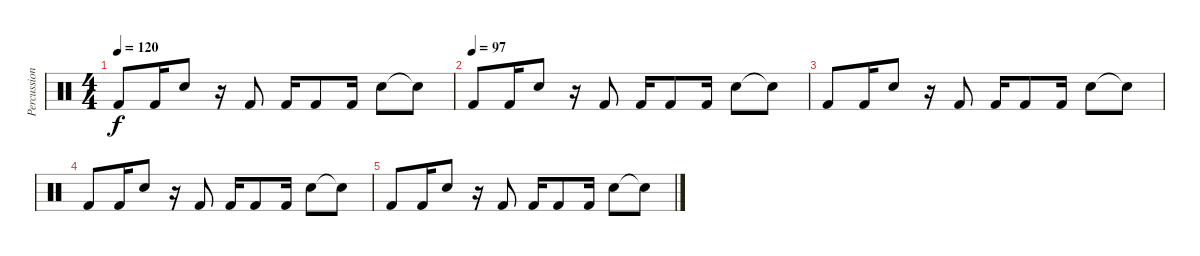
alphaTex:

\track ("Percussion" "Percussion") {instrument percussion}
\staff {score}
\articulation defaults
\ts (4 4)
\tempo 120
\clef neutral
\ks c "Kick (hit) 2".8{dy f} "Kick (hit) 2".16 "Electric Snare (hit)".8
r.16 "Kick (hit) 2".8 "Kick (hit) 2".16 "Kick (hit) 2".8 "Kick (hit) 2".16 "Electric Snare (hit)".8 "Snare (hit)"{t}.8 |
\tempo (97)
"Kick (hit) 2".8{volume 5} "Kick (hit) 2".16 "Electric Snare (hit)".8 r.16 "Kick (hit) 2".8 "Kick (hit) 2".16 "Kick (hit) 2".8 "Kick (hit) 2".16 "Electric Snare (hit)".8 "Snare (hit)"{t}.8 |
"Kick (hit) 2".8 "Kick (hit) 2".16 "Electric Snare (hit)".8 r.16 "Kick (hit) 2".8 "Kick (hit) 2".16 "Kick (hit) 2".8 "Kick (hit) 2".16 "Electric Snare (hit)".8 "Snare (hit)"{t}.8 |
"Kick (hit) 2".8 "Kick (hit) 2".16 "Electric Snare (hit)".8 r.16 "Kick (hit) 2".8 "Kick (hit) 2".16 "Kick (hit) 2".8 "Kick (hit) 2".16 "Electric Snare (hit)".8 "Snare (hit)"{t}.8 |
"Kick (hit) 2".8 "Kick (hit) 2".16 "Electric Snare (hit)".8 r.16 "Kick (hit) 2".8 "Kick (hit) 2".16 "Kick (hit) 2".8 "Kick (hit) 2".16 "Electric Snare (hit)".8 "Snare (hit)"{t}.8
